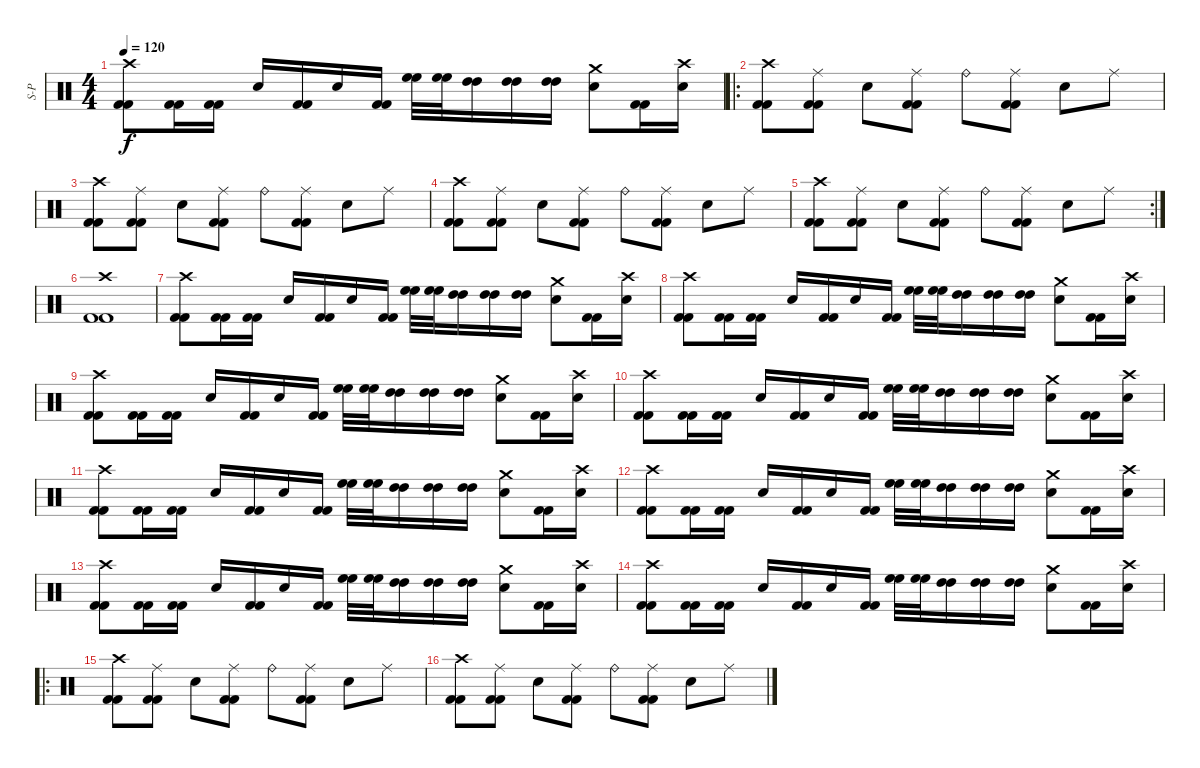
\track ("S-P" "S-P") {instrument percussion}
\staff {score}
\articulation defaults
\ts (4 4)
\tempo 120
\clef neutral
\ks c
("Crash high (hit)" "Kick (hit) 2" "Kick (hit) 2").8{dy f} ("Kick (hit) 2" "Kick (hit) 2").16 ("Kick (hit) 2" "Kick (hit) 2").16 "Electric Snare (hit)".16 ("Kick (hit) 2" "Kick (hit) 2").16 "Electric Snare (hit)".16 ("Kick (hit) 2" "Kick (hit) 2").16 ("High Floor Tom (hit)" "High Floor Tom (hit)").32 ("High Floor Tom (hit)" "High Floor Tom (hit)").32 ("High Tom (hit)" "High Tom (hit)").16 ("High Tom (hit)" "High Tom (hit)").16 ("High Tom (hit)" "High Tom (hit)").16 ("Crash medium (hit)" "Electric Snare (hit)").8 ("Kick (hit) 2" "Kick (hit) 2").16 ("Crash high (hit)" "Electric Snare (hit)").16 |
\ro
("Crash high (hit)" "Kick (hit) 2" "Kick (hit) 2").8 ("Ride (middle)" "Kick (hit) 2" "Kick (hit) 2").8 "Electric Snare (hit)".8 ("Ride (middle)" "Kick (hit) 2" "Kick (hit) 2").8 "Ride (bell)".8 ("Ride (middle)" "Kick (hit) 2" "Kick (hit) 2").8 "Electric Snare (hit)".8 "Ride (middle)".8 |
("Crash high (hit)" "Kick (hit) 2" "Kick (hit) 2").8 ("Ride (middle)" "Kick (hit) 2" "Kick (hit) 2").8 "Electric Snare (hit)".8 ("Ride (middle)" "Kick (hit) 2" "Kick (hit) 2").8 "Ride (bell)".8 ("Ride (middle)" "Kick (hit) 2" "Kick (hit) 2").8 "Electric Snare (hit)".8 "Ride (middle)".8 |
("Crash high (hit)" "Kick (hit) 2" "Kick (hit) 2").8 ("Ride (middle)" "Kick (hit) 2" "Kick (hit) 2").8 "Electric Snare (hit)".8 ("Ride (middle)" "Kick (hit) 2" "Kick (hit) 2").8 "Ride (bell)".8 ("Ride (middle)" "Kick (hit) 2" "Kick (hit) 2").8 "Electric Snare (hit)".8 "Ride (middle)".8 |
\rc 2
("Crash high (hit)" "Kick (hit) 2" "Kick (hit) 2").8 ("Ride (middle)" "Kick (hit) 2" "Kick (hit) 2").8 "Electric Snare (hit)".8 ("Ride (middle)" "Kick (hit) 2" "Kick (hit) 2").8 "Ride (bell)".8 ("Ride (middle)" "Kick (hit) 2" "Kick (hit) 2").8 "Electric Snare (hit)".8 "Ride (middle)".8 |
("Crash high (hit)" "Kick (hit) 2" "Kick (hit) 2").1 |
("Crash high (hit)" "Kick (hit) 2" "Kick (hit) 2").8 ("Kick (hit) 2" "Kick (hit) 2").16 ("Kick (hit) 2" "Kick (hit) 2").16 "Electric Snare (hit)".16 ("Kick (hit) 2" "Kick (hit) 2").16 "Electric Snare (hit)".16 ("Kick (hit) 2" "Kick (hit) 2").16 ("High Floor Tom (hit)" "High Floor Tom (hit)").32 ("High Floor Tom (hit)" "High Floor Tom (hit)").32 ("High Tom (hit)" "High Tom (hit)").16 ("High Tom (hit)" "High Tom (hit)").16 ("High Tom (hit)" "High Tom (hit)").16 ("Crash medium (hit)" "Electric Snare (hit)").8 ("Kick (hit) 2" "Kick (hit) 2").16 ("Crash high (hit)" "Electric Snare (hit)").16 |
("Crash high (hit)" "Kick (hit) 2" "Kick (hit) 2").8 ("Kick (hit) 2" "Kick (hit) 2").16 ("Kick (hit) 2" "Kick (hit) 2").16 "Electric Snare (hit)".16 ("Kick (hit) 2" "Kick (hit) 2").16 "Electric Snare (hit)".16 ("Kick (hit) 2" "Kick (hit) 2").16 ("High Floor Tom (hit)" "High Floor Tom (hit)").32 ("High Floor Tom (hit)" "High Floor Tom (hit)").32 ("High Tom (hit)" "High Tom (hit)").16 ("High Tom (hit)" "High Tom (hit)").16 ("High Tom (hit)" "High Tom (hit)").16 ("Crash medium (hit)" "Electric Snare (hit)").8 ("Kick (hit) 2" "Kick (hit) 2").16 ("Crash high (hit)" "Electric Snare (hit)").16 |
("Crash high (hit)" "Kick (hit) 2" "Kick (hit) 2").8 ("Kick (hit) 2" "Kick (hit) 2").16 ("Kick (hit) 2" "Kick (hit) 2").16 "Electric Snare (hit)".16 ("Kick (hit) 2" "Kick (hit) 2").16 "Electric Snare (hit)".16 ("Kick (hit) 2" "Kick (hit) 2").16 ("High Floor Tom (hit)" "High Floor Tom (hit)").32 ("High Floor Tom (hit)" "High Floor Tom (hit)").32 ("High Tom (hit)" "High Tom (hit)").16 ("High Tom (hit)" "High Tom (hit)").16 ("High Tom (hit)" "High Tom (hit)").16 ("Crash medium (hit)" "Electric Snare (hit)").8 ("Kick (hit) 2" "Kick (hit) 2").16 ("Crash high (hit)" "Electric Snare (hit)").16 |
("Crash high (hit)" "Kick (hit) 2" "Kick (hit) 2").8 ("Kick (hit) 2" "Kick (hit) 2").16 ("Kick (hit) 2" "Kick (hit) 2").16 "Electric Snare (hit)".16 ("Kick (hit) 2" "Kick (hit) 2").16 "Electric Snare (hit)".16 ("Kick (hit) 2" "Kick (hit) 2").16 ("High Floor Tom (hit)" "High Floor Tom (hit)").32 ("High Floor Tom (hit)" "High Floor Tom (hit)").32 ("High Tom (hit)" "High Tom (hit)").16 ("High Tom (hit)" "High Tom (hit)").16 ("High Tom (hit)" "High Tom (hit)").16 ("Crash medium (hit)" "Electric Snare (hit)").8 ("Kick (hit) 2" "Kick (hit) 2").16 ("Crash high (hit)" "Electric Snare (hit)").16 |
("Crash high (hit)" "Kick (hit) 2" "Kick (hit) 2").8 ("Kick (hit) 2" "Kick (hit) 2").16 ("Kick (hit) 2" "Kick (hit) 2").16 "Electric Snare (hit)".16 ("Kick (hit) 2" "Kick (hit) 2").16 "Electric Snare (hit)".16 ("Kick (hit) 2" "Kick (hit) 2").16 ("High Floor Tom (hit)" "High Floor Tom (hit)").32 ("High Floor Tom (hit)" "High Floor Tom (hit)").32 ("High Tom (hit)" "High Tom (hit)").16 ("High Tom (hit)" "High Tom (hit)").16 ("High Tom (hit)" "High Tom (hit)").16 ("Crash medium (hit)" "Electric Snare (hit)").8 ("Kick (hit) 2" "Kick (hit) 2").16 ("Crash high (hit)" "Electric Snare (hit)").16 |
("Crash high (hit)" "Kick (hit) 2" "Kick (hit) 2").8 ("Kick (hit) 2" "Kick (hit) 2").16 ("Kick (hit) 2" "Kick (hit) 2").16 "Electric Snare (hit)".16 ("Kick (hit) 2" "Kick (hit) 2").16 "Electric Snare (hit)".16 ("Kick (hit) 2" "Kick (hit) 2").16 ("High Floor Tom (hit)" "High Floor Tom (hit)").32 ("High Floor Tom (hit)" "High Floor Tom (hit)").32 ("High Tom (hit)" "High Tom (hit)").16 ("High Tom (hit)" "High Tom (hit)").16 ("High Tom (hit)" "High Tom (hit)").16 ("Crash medium (hit)" "Electric Snare (hit)").8 ("Kick (hit) 2" "Kick (hit) 2").16 ("Crash high (hit)" "Electric Snare (hit)").16 |
("Crash high (hit)" "Kick (hit) 2" "Kick (hit) 2").8 ("Kick (hit) 2" "Kick (hit) 2").16 ("Kick (hit) 2" "Kick (hit) 2").16 "Electric Snare (hit)".16 ("Kick (hit) 2" "Kick (hit) 2").16 "Electric Snare (hit)".16 ("Kick (hit) 2" "Kick (hit) 2").16 ("High Floor Tom (hit)" "High Floor Tom (hit)").32 ("High Floor Tom (hit)" "High Floor Tom (hit)").32 ("High Tom (hit)" "High Tom (hit)").16 ("High Tom (hit)" "High Tom (hit)").16 ("High Tom (hit)" "High Tom (hit)").16 ("Crash medium (hit)" "Electric Snare (hit)").8 ("Kick (hit) 2" "Kick (hit) 2").16 ("Crash high (hit)" "Electric Snare (hit)").16 |
("Crash high (hit)" "Kick (hit) 2" "Kick (hit) 2").8 ("Kick (hit) 2" "Kick (hit) 2").16 ("Kick (hit) 2" "Kick (hit) 2").16 "Electric Snare (hit)".16 ("Kick (hit) 2" "Kick (hit) 2").16 "Electric Snare (hit)".16 ("Kick (hit) 2" "Kick (hit) 2").16 ("High Floor Tom (hit)" "High Floor Tom (hit)").32 ("High Floor Tom (hit)" "High Floor Tom (hit)").32 ("High Tom (hit)" "High Tom (hit)").16 ("High Tom (hit)" "High Tom (hit)").16 ("High Tom (hit)" "High Tom (hit)").16 ("Crash medium (hit)" "Electric Snare (hit)").8 ("Kick (hit) 2" "Kick (hit) 2").16 ("Crash high (hit)" "Electric Snare (hit)").16 |
\ro
("Crash high (hit)" "Kick (hit) 2" "Kick (hit) 2").8 ("Ride (middle)" "Kick (hit) 2" "Kick (hit) 2").8 "Electric Snare (hit)".8 ("Ride (middle)" "Kick (hit) 2" "Kick (hit) 2").8 "Ride (bell)".8 ("Ride (middle)" "Kick (hit) 2" "Kick (hit) 2").8 "Electric Snare (hit)".8 "Ride (middle)".8 |
("Crash high (hit)" "Kick (hit) 2" "Kick (hit) 2").8 ("Ride (middle)" "Kick (hit) 2" "Kick (hit) 2").8 "Electric Snare (hit)".8 ("Ride (middle)" "Kick (hit) 2" "Kick (hit) 2").8 "Ride (bell)".8 ("Ride (middle)" "Kick (hit) 2" "Kick (hit) 2").8 "Electric Snare (hit)".8 "Ride (middle)".8
